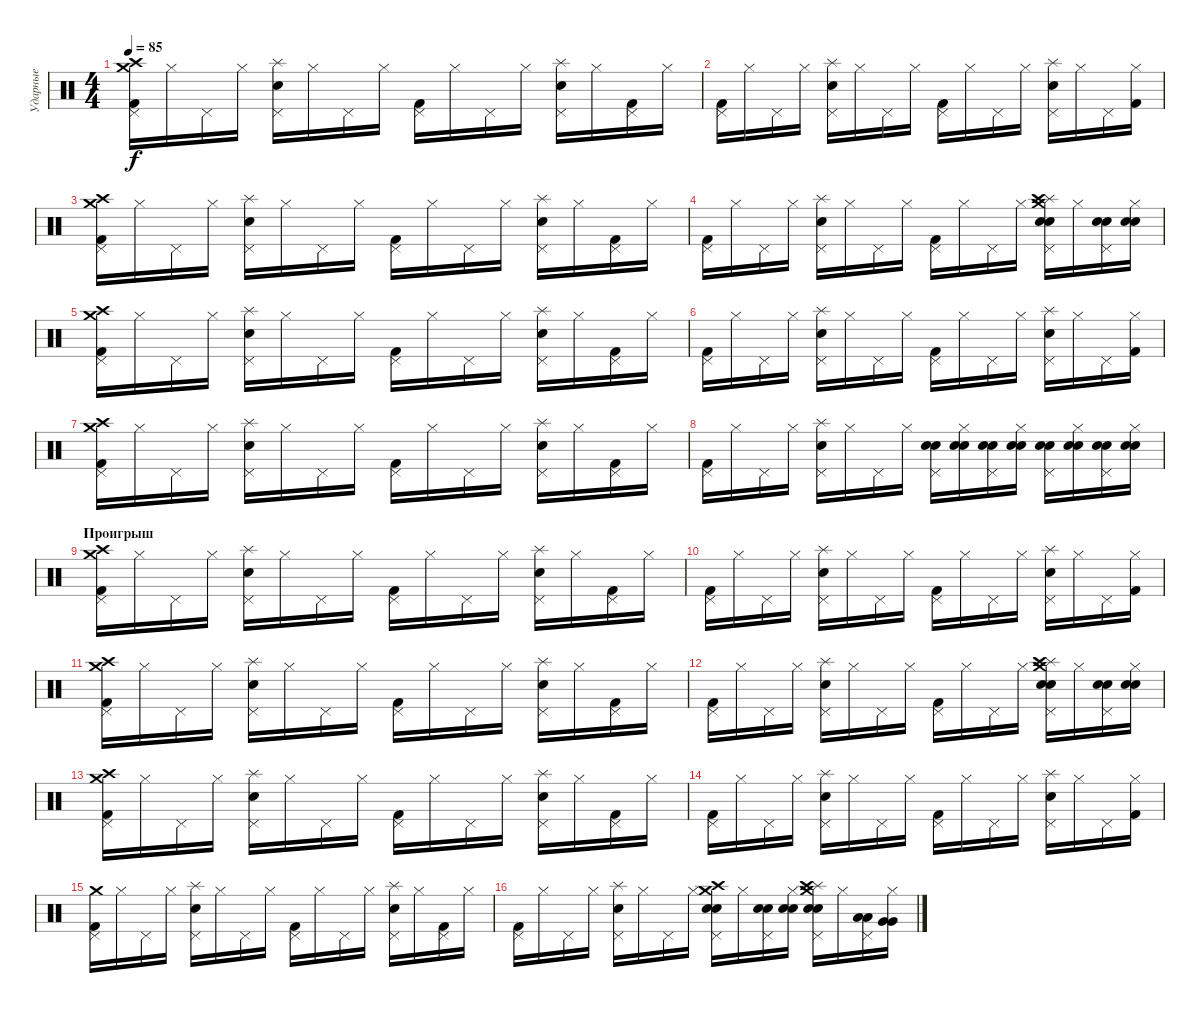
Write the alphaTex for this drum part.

\track ("Ударные" "Ударные") {instrument percussion}
\staff {score}
\articulation defaults
\ts (4 4)
\tempo 85
\clef neutral
\ks c
("Kick (hit) 2" "Pedal Hi-Hat (hit)" "Crash medium (hit)" "Crash high (hit)").16{dy f} "Hi-Hat (closed)".16 "Pedal Hi-Hat (hit)".16 "Hi-Hat (closed)".16 ("Snare (hit) 2" "Pedal Hi-Hat (hit)" "Splash (hit)").16 "Hi-Hat (closed)".16 "Pedal Hi-Hat (hit)".16 "Hi-Hat (closed)".16 ("Kick (hit) 2" "Pedal Hi-Hat (hit)").16 "Hi-Hat (closed)".16 "Pedal Hi-Hat (hit)".16 "Hi-Hat (closed)".16 ("Snare (hit) 2" "Pedal Hi-Hat (hit)" "Splash (hit)").16 "Hi-Hat (closed)".16 ("Kick (hit) 2" "Pedal Hi-Hat (hit)").16 "Hi-Hat (closed)".16 |
("Kick (hit) 2" "Pedal Hi-Hat (hit)").16 "Hi-Hat (closed)".16 "Pedal Hi-Hat (hit)".16 "Hi-Hat (closed)".16 ("Snare (hit) 2" "Pedal Hi-Hat (hit)" "Splash (hit)").16 "Hi-Hat (closed)".16 "Pedal Hi-Hat (hit)".16 "Hi-Hat (closed)".16 ("Kick (hit) 2" "Pedal Hi-Hat (hit)").16 "Hi-Hat (closed)".16 "Pedal Hi-Hat (hit)".16 "Hi-Hat (closed)".16 ("Snare (hit) 2" "Pedal Hi-Hat (hit)" "Splash (hit)").16 "Hi-Hat (closed)".16 "Pedal Hi-Hat (hit)".16 ("Kick (hit) 2" "Hi-Hat (closed)").16 |
("Kick (hit) 2" "Pedal Hi-Hat (hit)" "Crash medium (hit)" "Crash high (hit)").16 "Hi-Hat (closed)".16 "Pedal Hi-Hat (hit)".16 "Hi-Hat (closed)".16 ("Snare (hit) 2" "Pedal Hi-Hat (hit)" "Splash (hit)").16 "Hi-Hat (closed)".16 "Pedal Hi-Hat (hit)".16 "Hi-Hat (closed)".16 ("Kick (hit) 2" "Pedal Hi-Hat (hit)").16 "Hi-Hat (closed)".16 "Pedal Hi-Hat (hit)".16 "Hi-Hat (closed)".16 ("Snare (hit) 2" "Pedal Hi-Hat (hit)" "Splash (hit)").16 "Hi-Hat (closed)".16 ("Kick (hit) 2" "Pedal Hi-Hat (hit)").16 "Hi-Hat (closed)".16 |
("Kick (hit) 2" "Pedal Hi-Hat (hit)").16 "Hi-Hat (closed)".16 "Pedal Hi-Hat (hit)".16 "Hi-Hat (closed)".16 ("Snare (hit) 2" "Pedal Hi-Hat (hit)" "Splash (hit)").16 "Hi-Hat (closed)".16 "Pedal Hi-Hat (hit)".16 "Hi-Hat (closed)".16 ("Kick (hit) 2" "Pedal Hi-Hat (hit)").16 "Hi-Hat (closed)".16 "Pedal Hi-Hat (hit)".16 "Hi-Hat (closed)".16 ("Snare (hit) 2" "Snare (hit) 2" "Pedal Hi-Hat (hit)" "Splash (hit)" "Crash medium (hit)" "Crash high (hit)").16 "Hi-Hat (closed)".16 ("Snare (hit) 2" "Snare (hit) 2" "Pedal Hi-Hat (hit)").16 ("Snare (hit) 2" "Snare (hit) 2" "Hi-Hat (closed)").16 |
("Kick (hit) 2" "Pedal Hi-Hat (hit)" "Crash medium (hit)" "Crash high (hit)").16 "Hi-Hat (closed)".16 "Pedal Hi-Hat (hit)".16 "Hi-Hat (closed)".16 ("Snare (hit) 2" "Pedal Hi-Hat (hit)" "Splash (hit)").16 "Hi-Hat (closed)".16 "Pedal Hi-Hat (hit)".16 "Hi-Hat (closed)".16 ("Kick (hit) 2" "Pedal Hi-Hat (hit)").16 "Hi-Hat (closed)".16 "Pedal Hi-Hat (hit)".16 "Hi-Hat (closed)".16 ("Snare (hit) 2" "Pedal Hi-Hat (hit)" "Splash (hit)").16 "Hi-Hat (closed)".16 ("Kick (hit) 2" "Pedal Hi-Hat (hit)").16 "Hi-Hat (closed)".16 |
("Kick (hit) 2" "Pedal Hi-Hat (hit)").16 "Hi-Hat (closed)".16 "Pedal Hi-Hat (hit)".16 "Hi-Hat (closed)".16 ("Snare (hit) 2" "Pedal Hi-Hat (hit)" "Splash (hit)").16 "Hi-Hat (closed)".16 "Pedal Hi-Hat (hit)".16 "Hi-Hat (closed)".16 ("Kick (hit) 2" "Pedal Hi-Hat (hit)").16 "Hi-Hat (closed)".16 "Pedal Hi-Hat (hit)".16 "Hi-Hat (closed)".16 ("Snare (hit) 2" "Pedal Hi-Hat (hit)" "Splash (hit)").16 "Hi-Hat (closed)".16 "Pedal Hi-Hat (hit)".16 ("Kick (hit) 2" "Hi-Hat (closed)").16 |
("Kick (hit) 2" "Pedal Hi-Hat (hit)" "Crash medium (hit)" "Crash high (hit)").16 "Hi-Hat (closed)".16 "Pedal Hi-Hat (hit)".16 "Hi-Hat (closed)".16 ("Snare (hit) 2" "Pedal Hi-Hat (hit)" "Splash (hit)").16 "Hi-Hat (closed)".16 "Pedal Hi-Hat (hit)".16 "Hi-Hat (closed)".16 ("Kick (hit) 2" "Pedal Hi-Hat (hit)").16 "Hi-Hat (closed)".16 "Pedal Hi-Hat (hit)".16 "Hi-Hat (closed)".16 ("Snare (hit) 2" "Pedal Hi-Hat (hit)" "Splash (hit)").16 "Hi-Hat (closed)".16 ("Kick (hit) 2" "Pedal Hi-Hat (hit)").16 "Hi-Hat (closed)".16 |
("Kick (hit) 2" "Pedal Hi-Hat (hit)").16 "Hi-Hat (closed)".16 "Pedal Hi-Hat (hit)".16 "Hi-Hat (closed)".16 ("Snare (hit) 2" "Pedal Hi-Hat (hit)" "Splash (hit)").16 "Hi-Hat (closed)".16 "Pedal Hi-Hat (hit)".16 "Hi-Hat (closed)".16 ("Snare (hit) 2" "Snare (hit) 2" "Pedal Hi-Hat (hit)").16 ("Snare (hit) 2" "Snare (hit) 2" "Hi-Hat (closed)").16 ("Snare (hit) 2" "Snare (hit) 2" "Pedal Hi-Hat (hit)").16 ("Snare (hit) 2" "Snare (hit) 2" "Hi-Hat (closed)").16 ("Snare (hit) 2" "Snare (hit) 2" "Pedal Hi-Hat (hit)").16 ("Snare (hit) 2" "Snare (hit) 2" "Hi-Hat (closed)").16 ("Snare (hit) 2" "Snare (hit) 2" "Pedal Hi-Hat (hit)").16 ("Snare (hit) 2" "Snare (hit) 2" "Hi-Hat (closed)").16 |
\section ("" "Проигрыш")
("Kick (hit) 2" "Pedal Hi-Hat (hit)" "Crash high (hit)" "Crash medium (hit)").16 "Hi-Hat (closed)".16 "Pedal Hi-Hat (hit)".16 "Hi-Hat (closed)".16 ("Snare (hit) 2" "Pedal Hi-Hat (hit)" "Splash (hit)").16 "Hi-Hat (closed)".16 "Pedal Hi-Hat (hit)".16 "Hi-Hat (closed)".16 ("Kick (hit) 2" "Pedal Hi-Hat (hit)").16 "Hi-Hat (closed)".16 "Pedal Hi-Hat (hit)".16 "Hi-Hat (closed)".16 ("Snare (hit) 2" "Pedal Hi-Hat (hit)" "Splash (hit)").16 "Hi-Hat (closed)".16 ("Kick (hit) 2" "Pedal Hi-Hat (hit)").16 "Hi-Hat (closed)".16 |
("Kick (hit) 2" "Pedal Hi-Hat (hit)").16 "Hi-Hat (closed)".16 "Pedal Hi-Hat (hit)".16 "Hi-Hat (closed)".16 ("Snare (hit) 2" "Pedal Hi-Hat (hit)" "Splash (hit)").16 "Hi-Hat (closed)".16 "Pedal Hi-Hat (hit)".16 "Hi-Hat (closed)".16 ("Kick (hit) 2" "Pedal Hi-Hat (hit)").16 "Hi-Hat (closed)".16 "Pedal Hi-Hat (hit)".16 "Hi-Hat (closed)".16 ("Snare (hit) 2" "Pedal Hi-Hat (hit)" "Splash (hit)").16 "Hi-Hat (closed)".16 "Pedal Hi-Hat (hit)".16 ("Kick (hit) 2" "Hi-Hat (closed)").16 |
("Kick (hit) 2" "Pedal Hi-Hat (hit)" "Crash medium (hit)" "Crash high (hit)").16 "Hi-Hat (closed)".16 "Pedal Hi-Hat (hit)".16 "Hi-Hat (closed)".16 ("Snare (hit) 2" "Pedal Hi-Hat (hit)" "Splash (hit)").16 "Hi-Hat (closed)".16 "Pedal Hi-Hat (hit)".16 "Hi-Hat (closed)".16 ("Kick (hit) 2" "Pedal Hi-Hat (hit)").16 "Hi-Hat (closed)".16 "Pedal Hi-Hat (hit)".16 "Hi-Hat (closed)".16 ("Snare (hit) 2" "Pedal Hi-Hat (hit)" "Splash (hit)").16 "Hi-Hat (closed)".16 ("Kick (hit) 2" "Pedal Hi-Hat (hit)").16 "Hi-Hat (closed)".16 |
("Kick (hit) 2" "Pedal Hi-Hat (hit)").16 "Hi-Hat (closed)".16 "Pedal Hi-Hat (hit)".16 "Hi-Hat (closed)".16 ("Snare (hit) 2" "Pedal Hi-Hat (hit)" "Splash (hit)").16 "Hi-Hat (closed)".16 "Pedal Hi-Hat (hit)".16 "Hi-Hat (closed)".16 ("Kick (hit) 2" "Pedal Hi-Hat (hit)").16 "Hi-Hat (closed)".16 "Pedal Hi-Hat (hit)".16 "Hi-Hat (closed)".16 ("Snare (hit) 2" "Snare (hit) 2" "Pedal Hi-Hat (hit)" "Splash (hit)" "Crash medium (hit)" "Crash high (hit)").16 "Hi-Hat (closed)".16 ("Snare (hit) 2" "Snare (hit) 2" "Pedal Hi-Hat (hit)").16 ("Snare (hit) 2" "Snare (hit) 2" "Hi-Hat (closed)").16 |
("Kick (hit) 2" "Pedal Hi-Hat (hit)" "Crash medium (hit)" "Crash high (hit)").16 "Hi-Hat (closed)".16 "Pedal Hi-Hat (hit)".16 "Hi-Hat (closed)".16 ("Snare (hit) 2" "Pedal Hi-Hat (hit)" "Splash (hit)").16 "Hi-Hat (closed)".16 "Pedal Hi-Hat (hit)".16 "Hi-Hat (closed)".16 ("Kick (hit) 2" "Pedal Hi-Hat (hit)").16 "Hi-Hat (closed)".16 "Pedal Hi-Hat (hit)".16 "Hi-Hat (closed)".16 ("Snare (hit) 2" "Pedal Hi-Hat (hit)" "Splash (hit)").16 "Hi-Hat (closed)".16 ("Kick (hit) 2" "Pedal Hi-Hat (hit)").16 "Hi-Hat (closed)".16 |
("Kick (hit) 2" "Pedal Hi-Hat (hit)").16 "Hi-Hat (closed)".16 "Pedal Hi-Hat (hit)".16 "Hi-Hat (closed)".16 ("Snare (hit) 2" "Pedal Hi-Hat (hit)" "Splash (hit)").16 "Hi-Hat (closed)".16 "Pedal Hi-Hat (hit)".16 "Hi-Hat (closed)".16 ("Kick (hit) 2" "Pedal Hi-Hat (hit)").16 "Hi-Hat (closed)".16 "Pedal Hi-Hat (hit)".16 "Hi-Hat (closed)".16 ("Snare (hit) 2" "Pedal Hi-Hat (hit)" "Splash (hit)").16 "Hi-Hat (closed)".16 "Pedal Hi-Hat (hit)".16 ("Kick (hit) 2" "Hi-Hat (closed)").16 |
("Kick (hit) 2" "Pedal Hi-Hat (hit)" "Crash medium (hit)").16 "Hi-Hat (closed)".16 "Pedal Hi-Hat (hit)".16 "Hi-Hat (closed)".16 ("Snare (hit) 2" "Pedal Hi-Hat (hit)" "Splash (hit)").16 "Hi-Hat (closed)".16 "Pedal Hi-Hat (hit)".16 "Hi-Hat (closed)".16 ("Kick (hit) 2" "Pedal Hi-Hat (hit)").16 "Hi-Hat (closed)".16 "Pedal Hi-Hat (hit)".16 "Hi-Hat (closed)".16 ("Snare (hit) 2" "Pedal Hi-Hat (hit)" "Splash (hit)").16 "Hi-Hat (closed)".16 ("Kick (hit) 2" "Pedal Hi-Hat (hit)").16 "Hi-Hat (closed)".16 |
("Kick (hit) 2" "Pedal Hi-Hat (hit)").16 "Hi-Hat (closed)".16 "Pedal Hi-Hat (hit)".16 "Hi-Hat (closed)".16 ("Snare (hit) 2" "Pedal Hi-Hat (hit)" "Splash (hit)").16 "Hi-Hat (closed)".16 "Pedal Hi-Hat (hit)".16 "Hi-Hat (closed)".16 ("Snare (hit) 2" "Snare (hit) 2" "Pedal Hi-Hat (hit)" "Crash medium (hit)" "Crash high (hit)").16 "Hi-Hat (closed)".16 ("Snare (hit) 2" "Snare (hit) 2" "Pedal Hi-Hat (hit)").16 ("Snare (hit) 2" "Snare (hit) 2" "Hi-Hat (closed)").16 ("Snare (hit) 2" "Snare (hit) 2" "Pedal Hi-Hat (hit)" "Splash (hit)" "Crash medium (hit)" "Crash high (hit)").16 "Hi-Hat (closed)".16 ("Low Tom (hit)" "Low Tom (hit)" "Pedal Hi-Hat (hit)").16 ("Very Low Tom (hit)" "Very Low Tom (hit)" "Hi-Hat (closed)").16
